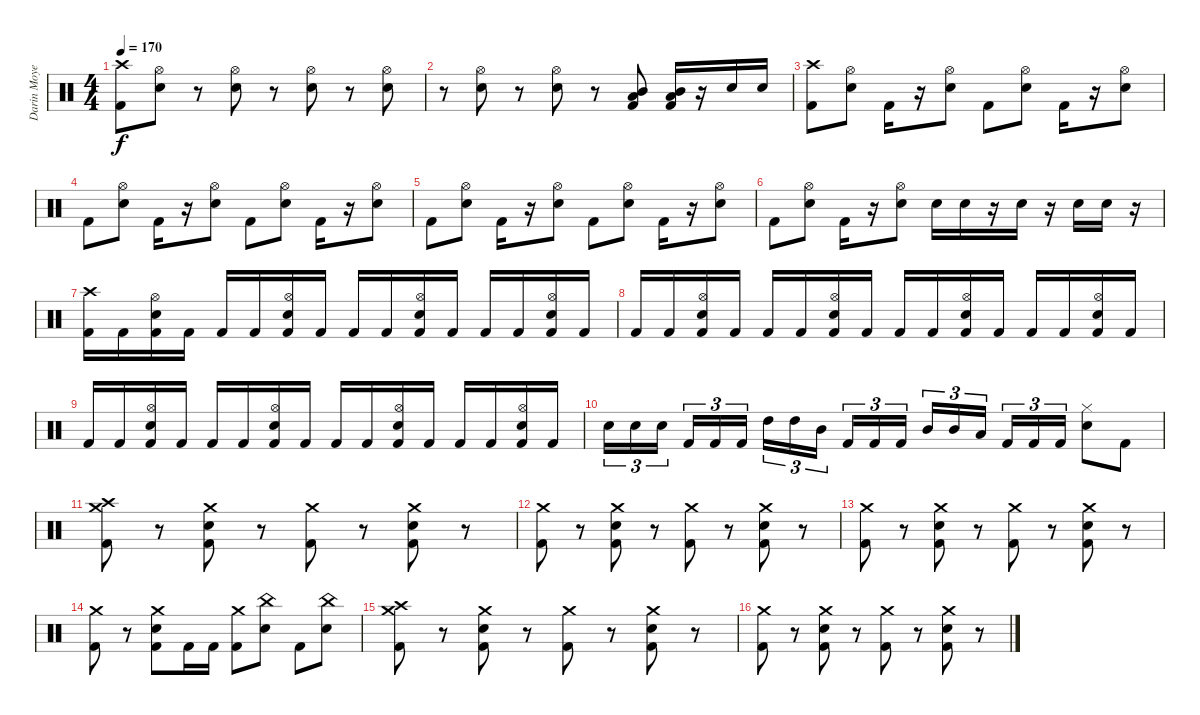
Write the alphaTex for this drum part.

\track ("Darin Moyen" "Darin Moye") {instrument percussion}
\staff {score}
\articulation defaults
\ts (4 4)
\tempo 170
\clef neutral
\ks c
("Crash high (hit)" "Kick (hit) 2").8{dy f} ("Hi-Hat (open)" "Electric Snare (hit)").8 r.8 ("Hi-Hat (open)" "Electric Snare (hit)").8 r.8 ("Hi-Hat (open)" "Electric Snare (hit)").8 r.8 ("Hi-Hat (open)" "Electric Snare (hit)").8 |
r.8 ("Hi-Hat (open)" "Electric Snare (hit)").8 r.8 ("Hi-Hat (open)" "Electric Snare (hit)").8 r.8 ("Mid Tom (hit)" "Low Tom (hit)" "Kick (hit) 2").8 ("Mid Tom (hit)" "Low Tom (hit)" "Kick (hit) 2").16 r.16 "Electric Snare (hit)".16 "Electric Snare (hit)".16 |
("Crash high (hit)" "Kick (hit) 2").8 ("Hi-Hat (open)" "Electric Snare (hit)").8 "Kick (hit) 2".16 r.16 ("Hi-Hat (open)" "Electric Snare (hit)").8 "Kick (hit) 2".8 ("Hi-Hat (open)" "Electric Snare (hit)").8 "Kick (hit) 2".16 r.16 ("Hi-Hat (open)" "Electric Snare (hit)").8 |
"Kick (hit) 2".8 ("Hi-Hat (open)" "Electric Snare (hit)").8 "Kick (hit) 2".16 r.16 ("Hi-Hat (open)" "Electric Snare (hit)").8 "Kick (hit) 2".8 ("Hi-Hat (open)" "Electric Snare (hit)").8 "Kick (hit) 2".16 r.16 ("Hi-Hat (open)" "Electric Snare (hit)").8 |
"Kick (hit) 2".8 ("Hi-Hat (open)" "Electric Snare (hit)").8 "Kick (hit) 2".16 r.16 ("Hi-Hat (open)" "Electric Snare (hit)").8 "Kick (hit) 2".8 ("Hi-Hat (open)" "Electric Snare (hit)").8 "Kick (hit) 2".16 r.16 ("Hi-Hat (open)" "Electric Snare (hit)").8 |
"Kick (hit) 2".8 ("Hi-Hat (open)" "Electric Snare (hit)").8 "Kick (hit) 2".16 r.16 ("Hi-Hat (open)" "Electric Snare (hit)").8 "Electric Snare (hit)".16 "Electric Snare (hit)".16 r.16 "Electric Snare (hit)".16 r.16 "Electric Snare (hit)".16 "Electric Snare (hit)".16 r.16 |
("Crash high (hit)" "Kick (hit) 2").16 "Kick (hit) 2".16 ("Hi-Hat (open)" "Electric Snare (hit)" "Kick (hit) 2").16 "Kick (hit) 2".16 "Kick (hit) 2".16 "Kick (hit) 2".16 ("Hi-Hat (open)" "Electric Snare (hit)" "Kick (hit) 2").16 "Kick (hit) 2".16 "Kick (hit) 2".16 "Kick (hit) 2".16 ("Hi-Hat (open)" "Electric Snare (hit)" "Kick (hit) 2").16 "Kick (hit) 2".16 "Kick (hit) 2".16 "Kick (hit) 2".16 ("Hi-Hat (open)" "Electric Snare (hit)" "Kick (hit) 2").16 "Kick (hit) 2".16 |
"Kick (hit) 2".16 "Kick (hit) 2".16 ("Hi-Hat (open)" "Electric Snare (hit)" "Kick (hit) 2").16 "Kick (hit) 2".16 "Kick (hit) 2".16 "Kick (hit) 2".16 ("Hi-Hat (open)" "Electric Snare (hit)" "Kick (hit) 2").16 "Kick (hit) 2".16 "Kick (hit) 2".16 "Kick (hit) 2".16 ("Hi-Hat (open)" "Electric Snare (hit)" "Kick (hit) 2").16 "Kick (hit) 2".16 "Kick (hit) 2".16 "Kick (hit) 2".16 ("Hi-Hat (open)" "Electric Snare (hit)" "Kick (hit) 2").16 "Kick (hit) 2".16 |
"Kick (hit) 2".16 "Kick (hit) 2".16 ("Hi-Hat (open)" "Electric Snare (hit)" "Kick (hit) 2").16 "Kick (hit) 2".16 "Kick (hit) 2".16 "Kick (hit) 2".16 ("Hi-Hat (open)" "Electric Snare (hit)" "Kick (hit) 2").16 "Kick (hit) 2".16 "Kick (hit) 2".16 "Kick (hit) 2".16 ("Hi-Hat (open)" "Electric Snare (hit)" "Kick (hit) 2").16 "Kick (hit) 2".16 "Kick (hit) 2".16 "Kick (hit) 2".16 ("Hi-Hat (open)" "Electric Snare (hit)" "Kick (hit) 2").16 "Kick (hit) 2".16 |
"Electric Snare (hit)".16{tu (3 2)} "Electric Snare (hit)".16{tu (3 2)} "Electric Snare (hit)".16{tu (3 2) beam splitsecondary} "Kick (hit) 2".16{tu (3 2)} "Kick (hit) 2".16{tu (3 2)} "Kick (hit) 2".16{tu (3 2)} "High Tom (hit)".16{tu (3 2)} "High Tom (hit)".16{tu (3 2)} "Mid Tom (hit)".16{tu (3 2) beam splitsecondary} "Kick (hit) 2".16{tu (3 2)} "Kick (hit) 2".16{tu (3 2)} "Kick (hit) 2".16{tu (3 2)} "Mid Tom (hit)".16{tu (3 2)} "Mid Tom (hit)".16{tu (3 2)} "Low Tom (hit)".16{tu (3 2) beam splitsecondary} "Kick (hit) 2".16{tu (3 2)} "Kick (hit) 2".16{tu (3 2)} "Kick (hit) 2".16{tu (3 2)} ("Hi-Hat (closed)" "Electric Snare (hit)").8 "Kick (hit) 2".8 |
("Crash high (hit)" "Crash medium (hit)" "Kick (hit) 2").8 r.8 ("Crash medium (hit)" "Electric Snare (hit)" "Kick (hit) 2").8 r.8 ("Crash medium (hit)" "Kick (hit) 2").8 r.8 ("Crash medium (hit)" "Electric Snare (hit)" "Kick (hit) 2").8 r.8 |
("Crash medium (hit)" "Kick (hit) 2").8 r.8 ("Crash medium (hit)" "Electric Snare (hit)" "Kick (hit) 2").8 r.8 ("Crash medium (hit)" "Kick (hit) 2").8 r.8 ("Crash medium (hit)" "Electric Snare (hit)" "Kick (hit) 2").8 r.8 |
("Crash medium (hit)" "Kick (hit) 2").8 r.8 ("Crash medium (hit)" "Electric Snare (hit)" "Kick (hit) 2").8 r.8 ("Crash medium (hit)" "Kick (hit) 2").8 r.8 ("Crash medium (hit)" "Electric Snare (hit)" "Kick (hit) 2").8 r.8 |
("Crash medium (hit)" "Kick (hit) 2").8 r.8 ("Crash medium (hit)" "Electric Snare (hit)" "Kick (hit) 2").8 "Kick (hit) 2".16 "Kick (hit) 2".16 ("Crash medium (hit)" "Kick (hit) 2").8 ("China (hit)" "Electric Snare (hit)").8 "Kick (hit) 2".8 ("China (hit)" "Electric Snare (hit)").8 |
("Crash high (hit)" "Crash medium (hit)" "Kick (hit) 2").8 r.8 ("Crash medium (hit)" "Electric Snare (hit)" "Kick (hit) 2").8 r.8 ("Crash medium (hit)" "Kick (hit) 2").8 r.8 ("Crash medium (hit)" "Electric Snare (hit)" "Kick (hit) 2").8 r.8 |
("Crash medium (hit)" "Kick (hit) 2").8 r.8 ("Crash medium (hit)" "Electric Snare (hit)" "Kick (hit) 2").8 r.8 ("Crash medium (hit)" "Kick (hit) 2").8 r.8 ("Crash medium (hit)" "Electric Snare (hit)" "Kick (hit) 2").8 r.8
